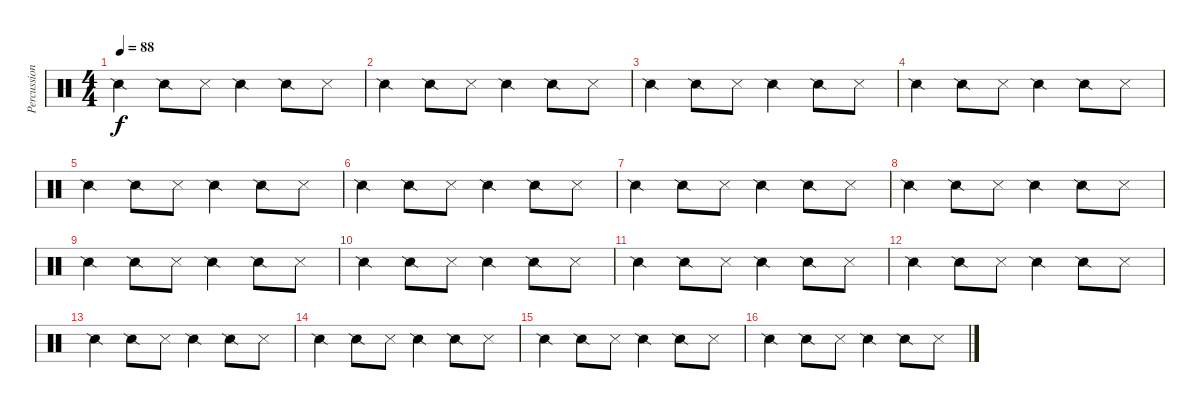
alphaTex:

\track ("Percussion" "Percussion") {instrument percussion}
\staff {score}
\articulation defaults
\ts (4 4)
\tempo 88
\clef neutral
\ks c "Snare (side stick) 2".4{dy f} "Snare (side stick) 2".8 "Snare (side stick) 3".8 "Snare (side stick) 2".4 "Snare (side stick) 2".8 "Snare (side stick) 3".8
|
"Snare (side stick) 2".4 "Snare (side stick) 2".8 "Snare (side stick) 3".8 "Snare (side stick) 2".4 "Snare (side stick) 2".8 "Snare (side stick) 3".8 |
"Snare (side stick) 2".4 "Snare (side stick) 2".8 "Snare (side stick) 3".8 "Snare (side stick) 2".4 "Snare (side stick) 2".8 "Snare (side stick) 3".8 |
"Snare (side stick) 2".4 "Snare (side stick) 2".8 "Snare (side stick) 3".8 "Snare (side stick) 2".4 "Snare (side stick) 2".8 "Snare (side stick) 3".8 |
"Snare (side stick) 2".4 "Snare (side stick) 2".8 "Snare (side stick) 3".8 "Snare (side stick) 2".4 "Snare (side stick) 2".8 "Snare (side stick) 3".8 |
"Snare (side stick) 2".4 "Snare (side stick) 2".8 "Snare (side stick) 3".8 "Snare (side stick) 2".4 "Snare (side stick) 2".8 "Snare (side stick) 3".8 |
"Snare (side stick) 2".4 "Snare (side stick) 2".8 "Snare (side stick) 3".8 "Snare (side stick) 2".4 "Snare (side stick) 2".8 "Snare (side stick) 3".8 |
"Snare (side stick) 2".4 "Snare (side stick) 2".8 "Snare (side stick) 3".8 "Snare (side stick) 2".4 "Snare (side stick) 2".8 "Snare (side stick) 3".8 |
"Snare (side stick) 2".4 "Snare (side stick) 2".8 "Snare (side stick) 3".8 "Snare (side stick) 2".4 "Snare (side stick) 2".8 "Snare (side stick) 3".8 |
"Snare (side stick) 2".4 "Snare (side stick) 2".8 "Snare (side stick) 3".8 "Snare (side stick) 2".4 "Snare (side stick) 2".8 "Snare (side stick) 3".8 |
"Snare (side stick) 2".4 "Snare (side stick) 2".8 "Snare (side stick) 3".8 "Snare (side stick) 2".4 "Snare (side stick) 2".8 "Snare (side stick) 3".8 |
"Snare (side stick) 2".4 "Snare (side stick) 2".8 "Snare (side stick) 3".8 "Snare (side stick) 2".4 "Snare (side stick) 2".8 "Snare (side stick) 3".8 |
"Snare (side stick) 2".4 "Snare (side stick) 2".8 "Snare (side stick) 3".8 "Snare (side stick) 2".4 "Snare (side stick) 2".8 "Snare (side stick) 3".8 |
"Snare (side stick) 2".4 "Snare (side stick) 2".8 "Snare (side stick) 3".8 "Snare (side stick) 2".4 "Snare (side stick) 2".8 "Snare (side stick) 3".8 |
"Snare (side stick) 2".4 "Snare (side stick) 2".8 "Snare (side stick) 3".8 "Snare (side stick) 2".4 "Snare (side stick) 2".8 "Snare (side stick) 3".8 |
"Snare (side stick) 2".4 "Snare (side stick) 2".8 "Snare (side stick) 3".8 "Snare (side stick) 2".4 "Snare (side stick) 2".8 "Snare (side stick) 3".8
